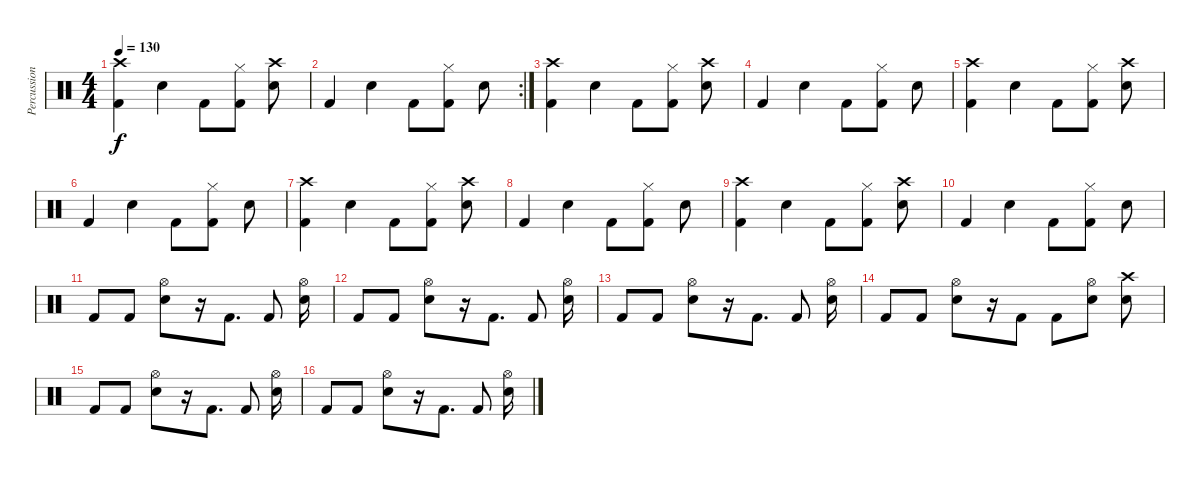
\track ("Percussion" "Percussion") {instrument percussion}
\staff {score}
\articulation defaults
\ts (4 4)
\tempo 130
\clef neutral
\ks c
("Kick (hit) 2" "Crash high (hit)").4{dy f} "Snare (hit) 2".4 "Kick (hit) 2".8 ("Kick (hit) 2" "Hi-Hat (closed)").8 ("Snare (hit) 2" "Crash high (hit)").8 |
\rc 2 "Kick (hit) 2".4 "Snare (hit) 2".4 "Kick (hit) 2".8
("Kick (hit) 2" "Hi-Hat (closed)").8 "Snare (hit) 2".8 |
("Kick (hit) 2" "Crash high (hit)").4 "Snare (hit) 2".4 "Kick (hit) 2".8 ("Kick (hit) 2" "Hi-Hat (closed)").8 ("Snare (hit) 2" "Crash high (hit)").8 |
"Kick (hit) 2".4 "Snare (hit) 2".4 "Kick (hit) 2".8 ("Kick (hit) 2" "Hi-Hat (closed)").8 "Snare (hit) 2".8 |
("Kick (hit) 2" "Crash high (hit)").4 "Snare (hit) 2".4 "Kick (hit) 2".8 ("Kick (hit) 2" "Hi-Hat (closed)").8 ("Snare (hit) 2" "Crash high (hit)").8 |
"Kick (hit) 2".4 "Snare (hit) 2".4 "Kick (hit) 2".8 ("Kick (hit) 2" "Hi-Hat (closed)").8 "Snare (hit) 2".8 |
("Kick (hit) 2" "Crash high (hit)").4 "Snare (hit) 2".4 "Kick (hit) 2".8 ("Kick (hit) 2" "Hi-Hat (closed)").8 ("Snare (hit) 2" "Crash high (hit)").8 |
"Kick (hit) 2".4 "Snare (hit) 2".4 "Kick (hit) 2".8 ("Kick (hit) 2" "Hi-Hat (closed)").8 "Snare (hit) 2".8 |
("Kick (hit) 2" "Crash high (hit)").4 "Snare (hit) 2".4 "Kick (hit) 2".8 ("Kick (hit) 2" "Hi-Hat (closed)").8 ("Snare (hit) 2" "Crash high (hit)").8 |
"Kick (hit) 2".4 "Snare (hit) 2".4 "Kick (hit) 2".8 ("Kick (hit) 2" "Hi-Hat (closed)").8 "Snare (hit) 2".8 |
"Kick (hit) 2".8 "Kick (hit) 2".8 ("Electric Snare (hit)" "Hi-Hat (open)").8 r.16 "Kick (hit) 2".8{d} "Kick (hit) 2".8 ("Electric Snare (hit)" "Hi-Hat (open)").16 |
"Kick (hit) 2".8 "Kick (hit) 2".8 ("Electric Snare (hit)" "Hi-Hat (open)").8 r.16 "Kick (hit) 2".8{d} "Kick (hit) 2".8 ("Electric Snare (hit)" "Hi-Hat (open)").16 |
"Kick (hit) 2".8 "Kick (hit) 2".8 ("Electric Snare (hit)" "Hi-Hat (open)").8 r.16 "Kick (hit) 2".8{d} "Kick (hit) 2".8 ("Electric Snare (hit)" "Hi-Hat (open)").16 |
"Kick (hit) 2".8 "Kick (hit) 2".8 ("Electric Snare (hit)" "Hi-Hat (open)").8 r.16 "Kick (hit) 2".8 "Kick (hit) 2".8 ("Electric Snare (hit)" "Hi-Hat (open)").8 ("Electric Snare (hit)" "Crash high (hit)").8 |
"Kick (hit) 2".8 "Kick (hit) 2".8 ("Electric Snare (hit)" "Hi-Hat (open)").8 r.16 "Kick (hit) 2".8{d} "Kick (hit) 2".8 ("Electric Snare (hit)" "Hi-Hat (open)").16 |
"Kick (hit) 2".8 "Kick (hit) 2".8 ("Electric Snare (hit)" "Hi-Hat (open)").8 r.16 "Kick (hit) 2".8{d} "Kick (hit) 2".8 ("Electric Snare (hit)" "Hi-Hat (open)").16
